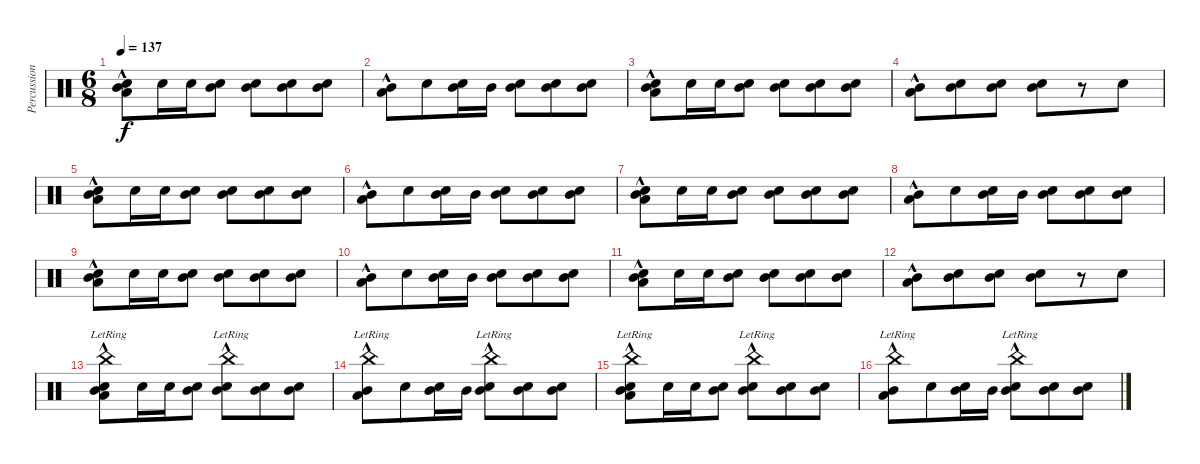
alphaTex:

\track ("Percussion" "Percussion") {instrument percussion}
\staff {score}
\articulation defaults
\ts (6 8)
\tempo 137
\clef neutral
\ks c
("Snare (hit) 2" "Mid Tom (hit)" "Low Floor Tom (hit)"{hac}).8{dy f} "Snare (hit) 2".16 "Snare (hit) 2".16 ("Snare (hit) 2" "Mid Tom (hit)").8 ("Snare (hit) 2" "Mid Tom (hit)").8 ("Snare (hit) 2" "Mid Tom (hit)").8 ("Snare (hit) 2" "Mid Tom (hit)").8 |
("Mid Tom (hit)" "Low Floor Tom (hit)"{hac}).8 "Snare (hit) 2".8 ("Snare (hit) 2" "Mid Tom (hit)").16 "Mid Tom (hit)".16 ("Snare (hit) 2" "Mid Tom (hit)").8 ("Snare (hit) 2" "Mid Tom (hit)").8 ("Snare (hit) 2" "Mid Tom (hit)").8 |
("Snare (hit) 2" "Mid Tom (hit)" "Low Floor Tom (hit)"{hac}).8 "Snare (hit) 2".16 "Snare (hit) 2".16 ("Snare (hit) 2" "Mid Tom (hit)").8 ("Snare (hit) 2" "Mid Tom (hit)").8 ("Snare (hit) 2" "Mid Tom (hit)").8 ("Snare (hit) 2" "Mid Tom (hit)").8 |
("Mid Tom (hit)" "Low Floor Tom (hit)"{hac}).8 ("Snare (hit) 2" "Mid Tom (hit)").8 ("Snare (hit) 2" "Mid Tom (hit)").8 ("Snare (hit) 2" "Mid Tom (hit)").8 r.8 "Snare (hit) 2".8 |
("Snare (hit) 2" "Mid Tom (hit)" "Low Floor Tom (hit)"{hac}).8 "Snare (hit) 2".16 "Snare (hit) 2".16 ("Snare (hit) 2" "Mid Tom (hit)").8 ("Snare (hit) 2" "Mid Tom (hit)").8 ("Snare (hit) 2" "Mid Tom (hit)").8 ("Snare (hit) 2" "Mid Tom (hit)").8 |
("Mid Tom (hit)" "Low Floor Tom (hit)"{hac}).8 "Snare (hit) 2".8 ("Snare (hit) 2" "Mid Tom (hit)").16 "Mid Tom (hit)".16 ("Snare (hit) 2" "Mid Tom (hit)").8 ("Snare (hit) 2" "Mid Tom (hit)").8 ("Snare (hit) 2" "Mid Tom (hit)").8 |
("Snare (hit) 2" "Mid Tom (hit)" "Low Floor Tom (hit)"{hac}).8 "Snare (hit) 2".16 "Snare (hit) 2".16 ("Snare (hit) 2" "Mid Tom (hit)").8 ("Snare (hit) 2" "Mid Tom (hit)").8 ("Snare (hit) 2" "Mid Tom (hit)").8 ("Snare (hit) 2" "Mid Tom (hit)").8 |
("Mid Tom (hit)" "Low Floor Tom (hit)"{hac}).8 "Snare (hit) 2".8 ("Snare (hit) 2" "Mid Tom (hit)").16 "Mid Tom (hit)".16 ("Snare (hit) 2" "Mid Tom (hit)").8 ("Snare (hit) 2" "Mid Tom (hit)").8 ("Snare (hit) 2" "Mid Tom (hit)").8 |
("Snare (hit) 2" "Mid Tom (hit)" "Low Floor Tom (hit)"{hac}).8 "Snare (hit) 2".16 "Snare (hit) 2".16 ("Snare (hit) 2" "Mid Tom (hit)").8 ("Snare (hit) 2" "Mid Tom (hit)").8 ("Snare (hit) 2" "Mid Tom (hit)").8 ("Snare (hit) 2" "Mid Tom (hit)").8 |
("Mid Tom (hit)" "Low Floor Tom (hit)"{hac}).8 "Snare (hit) 2".8 ("Snare (hit) 2" "Mid Tom (hit)").16 "Mid Tom (hit)".16 ("Snare (hit) 2" "Mid Tom (hit)").8 ("Snare (hit) 2" "Mid Tom (hit)").8 ("Snare (hit) 2" "Mid Tom (hit)").8 |
("Snare (hit) 2" "Mid Tom (hit)" "Low Floor Tom (hit)"{hac}).8 "Snare (hit) 2".16 "Snare (hit) 2".16 ("Snare (hit) 2" "Mid Tom (hit)").8 ("Snare (hit) 2" "Mid Tom (hit)").8 ("Snare (hit) 2" "Mid Tom (hit)").8 ("Snare (hit) 2" "Mid Tom (hit)").8 |
("Mid Tom (hit)" "Low Floor Tom (hit)"{hac}).8 ("Snare (hit) 2" "Mid Tom (hit)").8 ("Snare (hit) 2" "Mid Tom (hit)").8 ("Snare (hit) 2" "Mid Tom (hit)").8 r.8 "Snare (hit) 2".8 |
("China (hit)"{hac lr} "Snare (hit) 2" "Mid Tom (hit)" "Low Floor Tom (hit)"{hac}).8 "Snare (hit) 2".16 "Snare (hit) 2".16 ("Snare (hit) 2" "Mid Tom (hit)").8 ("China (hit)"{hac lr} "Snare (hit) 2" "Mid Tom (hit)").8 ("Snare (hit) 2" "Mid Tom (hit)").8 ("Snare (hit) 2" "Mid Tom (hit)").8 |
("China (hit)"{hac lr} "Mid Tom (hit)" "Low Floor Tom (hit)"{hac}).8 "Snare (hit) 2".8 ("Snare (hit) 2" "Mid Tom (hit)").16 "Mid Tom (hit)".16 ("China (hit)"{hac lr} "Snare (hit) 2" "Mid Tom (hit)").8 ("Snare (hit) 2" "Mid Tom (hit)").8 ("Snare (hit) 2" "Mid Tom (hit)").8 |
("China (hit)"{hac lr} "Snare (hit) 2" "Mid Tom (hit)" "Low Floor Tom (hit)"{hac}).8 "Snare (hit) 2".16 "Snare (hit) 2".16 ("Snare (hit) 2" "Mid Tom (hit)").8 ("China (hit)"{hac lr} "Snare (hit) 2" "Mid Tom (hit)").8 ("Snare (hit) 2" "Mid Tom (hit)").8 ("Snare (hit) 2" "Mid Tom (hit)").8 |
("China (hit)"{hac lr} "Mid Tom (hit)" "Low Floor Tom (hit)"{hac}).8 "Snare (hit) 2".8 ("Snare (hit) 2" "Mid Tom (hit)").16 "Mid Tom (hit)".16 ("China (hit)"{hac lr} "Snare (hit) 2" "Mid Tom (hit)").8 ("Snare (hit) 2" "Mid Tom (hit)").8 ("Snare (hit) 2" "Mid Tom (hit)").8
